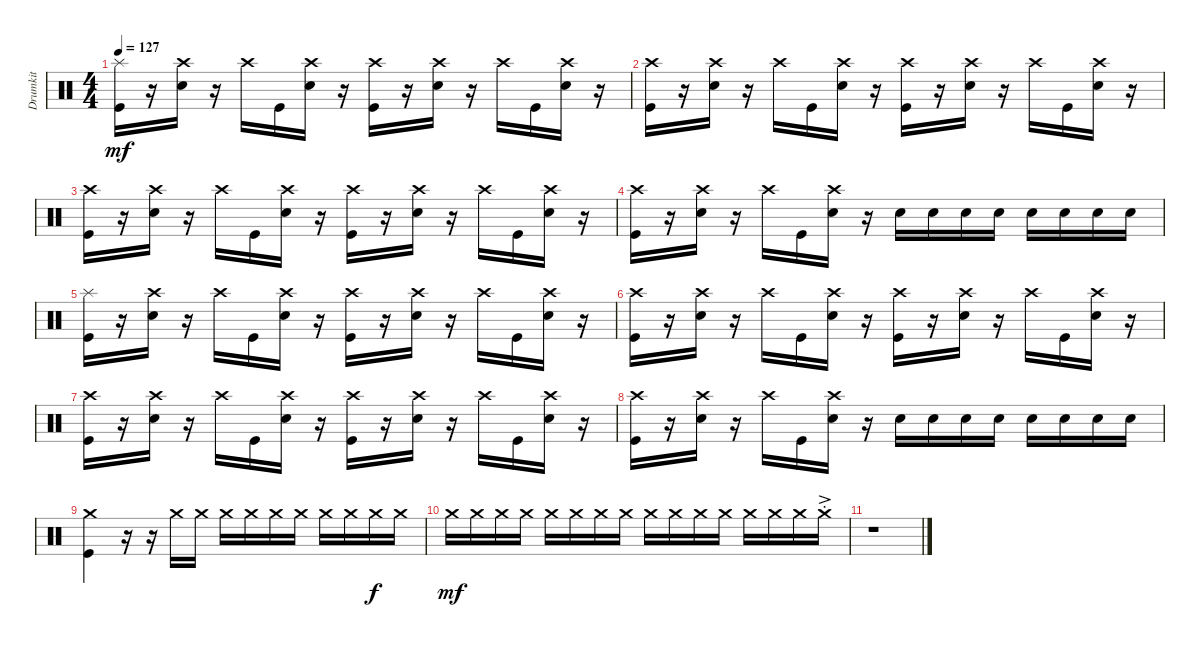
\track ("Drumkit" "Drumkit") {instrument percussion}
\staff {score}
\articulation defaults
\ts (4 4)
\tempo 127
\clef neutral
\ks c
("Kick (hit)" "Splash (hit)").16{dy mf} r.16 ("Snare (hit) 2" "Crash high (hit)").16 r.16 "Crash high (hit)".16 "Kick (hit)".16 ("Snare (hit) 2" "Crash high (hit)").16 r.16 ("Kick (hit)" "Crash high (hit)").16 r.16 ("Snare (hit) 2" "Crash high (hit)").16 r.16 "Crash high (hit)".16 "Kick (hit)".16 ("Snare (hit) 2" "Crash high (hit)").16 r.16 |
("Kick (hit)" "Crash high (hit)").16 r.16 ("Snare (hit) 2" "Crash high (hit)").16 r.16 "Crash high (hit)".16 "Kick (hit)".16 ("Snare (hit) 2" "Crash high (hit)").16 r.16 ("Kick (hit)" "Crash high (hit)").16 r.16 ("Snare (hit) 2" "Crash high (hit)").16 r.16 "Crash high (hit)".16 "Kick (hit)".16 ("Snare (hit) 2" "Crash high (hit)").16 r.16 |
("Kick (hit)" "Crash high (hit)").16 r.16 ("Snare (hit) 2" "Crash high (hit)").16 r.16 "Crash high (hit)".16 "Kick (hit)".16 ("Snare (hit) 2" "Crash high (hit)").16 r.16 ("Kick (hit)" "Crash high (hit)").16 r.16 ("Snare (hit) 2" "Crash high (hit)").16 r.16 "Crash high (hit)".16 "Kick (hit)".16 ("Snare (hit) 2" "Crash high (hit)").16 r.16 |
("Kick (hit)" "Crash high (hit)").16 r.16 ("Snare (hit) 2" "Crash high (hit)").16 r.16 "Crash high (hit)".16 "Kick (hit)".16 ("Snare (hit) 2" "Crash high (hit)").16 r.16 "Snare (hit) 2".16 "Snare (hit) 2".16 "Snare (hit) 2".16 "Snare (hit) 2".16 "Snare (hit) 2".16 "Snare (hit) 2".16 "Snare (hit) 2".16 "Snare (hit) 2".16 |
("Kick (hit)" "Splash (hit)").16 r.16 ("Snare (hit) 2" "Crash high (hit)").16 r.16 "Crash high (hit)".16 "Kick (hit)".16 ("Snare (hit) 2" "Crash high (hit)").16 r.16 ("Kick (hit)" "Crash high (hit)").16 r.16 ("Snare (hit) 2" "Crash high (hit)").16 r.16 "Crash high (hit)".16 "Kick (hit)".16 ("Snare (hit) 2" "Crash high (hit)").16 r.16 |
("Kick (hit)" "Crash high (hit)").16 r.16 ("Snare (hit) 2" "Crash high (hit)").16 r.16 "Crash high (hit)".16 "Kick (hit)".16 ("Snare (hit) 2" "Crash high (hit)").16 r.16 ("Kick (hit)" "Crash high (hit)").16 r.16 ("Snare (hit) 2" "Crash high (hit)").16 r.16 "Crash high (hit)".16 "Kick (hit)".16 ("Snare (hit) 2" "Crash high (hit)").16 r.16 |
("Kick (hit)" "Crash high (hit)").16 r.16 ("Snare (hit) 2" "Crash high (hit)").16 r.16 "Crash high (hit)".16 "Kick (hit)".16 ("Snare (hit) 2" "Crash high (hit)").16 r.16 ("Kick (hit)" "Crash high (hit)").16 r.16 ("Snare (hit) 2" "Crash high (hit)").16 r.16 "Crash high (hit)".16 "Kick (hit)".16 ("Snare (hit) 2" "Crash high (hit)").16 r.16 |
("Kick (hit)" "Crash high (hit)").16 r.16 ("Snare (hit) 2" "Crash high (hit)").16 r.16 "Crash high (hit)".16 "Kick (hit)".16 ("Snare (hit) 2" "Crash high (hit)").16 r.16 "Snare (hit) 2".16 "Snare (hit) 2".16 "Snare (hit) 2".16 "Snare (hit) 2".16 "Snare (hit) 2".16 "Snare (hit) 2".16 "Snare (hit) 2".16 "Snare (hit) 2".16 |
("Kick (hit)" "Crash medium (hit)").4 r.16{volume 2} r.16 "Crash medium (hit)".16{volume 16} "Crash medium (hit)".16 "Crash medium (hit)".16 "Crash medium (hit)".16 "Crash medium (hit)".16 "Crash medium (hit)".16 "Crash medium (hit)".16 "Crash medium (hit)".16 "Crash medium (hit)".16{dy f} "Crash medium (hit)".16 |
"Crash medium (hit)".16{dy mf} "Crash medium (hit)".16 "Crash medium (hit)".16 "Crash medium (hit)".16 "Crash medium (hit)".16 "Crash medium (hit)".16 "Crash medium (hit)".16 "Crash medium (hit)".16 "Crash medium (hit)".16 "Crash medium (hit)".16 "Crash medium (hit)".16 "Crash medium (hit)".16 "Crash medium (hit)".16 "Crash medium (hit)".16 "Crash medium (hit)".16 "Crash medium (hit)"{ac st}.16 |
r.1
